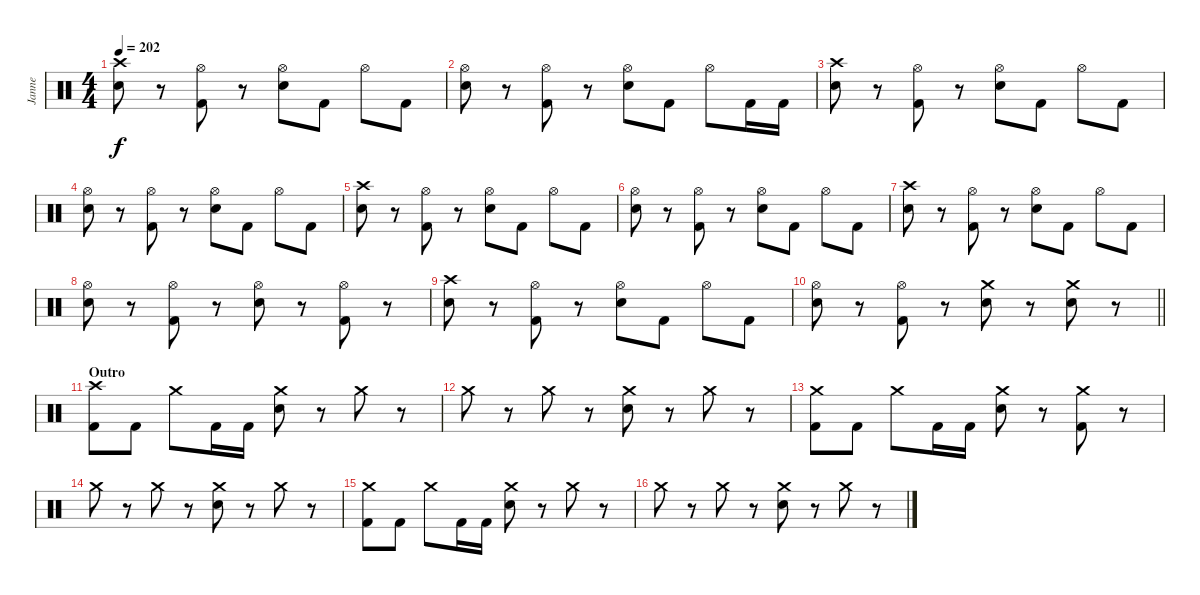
\track ("Janne" "Janne") {instrument percussion}
\staff {score}
\articulation defaults
\ts (4 4)
\tempo 202
\clef neutral
\ks c
("Crash high (hit)" "Electric Snare (hit)").8{dy f} r.8 ("Hi-Hat (open)" "Kick (hit) 2").8 r.8 ("Hi-Hat (open)" "Electric Snare (hit)").8 "Kick (hit) 2".8 "Hi-Hat (open)".8 "Kick (hit) 2".8 |
("Hi-Hat (open)" "Electric Snare (hit)").8 r.8 ("Hi-Hat (open)" "Kick (hit) 2").8 r.8 ("Hi-Hat (open)" "Electric Snare (hit)").8 "Kick (hit) 2".8 "Hi-Hat (open)".8 "Kick (hit) 2".16 "Kick (hit) 2".16 |
("Crash high (hit)" "Electric Snare (hit)").8 r.8 ("Hi-Hat (open)" "Kick (hit) 2").8 r.8 ("Hi-Hat (open)" "Electric Snare (hit)").8 "Kick (hit) 2".8 "Hi-Hat (open)".8 "Kick (hit) 2".8 |
("Hi-Hat (open)" "Electric Snare (hit)").8 r.8 ("Hi-Hat (open)" "Kick (hit) 2").8 r.8 ("Hi-Hat (open)" "Electric Snare (hit)").8 "Kick (hit) 2".8 "Hi-Hat (open)".8 "Kick (hit) 2".8 |
("Crash high (hit)" "Electric Snare (hit)").8 r.8 ("Hi-Hat (open)" "Kick (hit) 2").8 r.8 ("Hi-Hat (open)" "Electric Snare (hit)").8 "Kick (hit) 2".8 "Hi-Hat (open)".8 "Kick (hit) 2".8 |
("Hi-Hat (open)" "Electric Snare (hit)").8 r.8 ("Hi-Hat (open)" "Kick (hit) 2").8 r.8 ("Hi-Hat (open)" "Electric Snare (hit)").8 "Kick (hit) 2".8 "Hi-Hat (open)".8 "Kick (hit) 2".8 |
("Crash high (hit)" "Electric Snare (hit)").8 r.8 ("Hi-Hat (open)" "Kick (hit) 2").8 r.8 ("Hi-Hat (open)" "Electric Snare (hit)").8 "Kick (hit) 2".8 "Hi-Hat (open)".8 "Kick (hit) 2".8 |
("Hi-Hat (open)" "Electric Snare (hit)").8 r.8 ("Hi-Hat (open)" "Kick (hit) 2").8 r.8 ("Hi-Hat (open)" "Electric Snare (hit)").8 r.8 ("Hi-Hat (open)" "Kick (hit) 2").8 r.8 |
("Crash high (hit)" "Electric Snare (hit)").8 r.8 ("Hi-Hat (open)" "Kick (hit) 2").8 r.8 ("Hi-Hat (open)" "Electric Snare (hit)").8 "Kick (hit) 2".8 "Hi-Hat (open)".8 "Kick (hit) 2".8 |
\barLineRight lightlight
("Hi-Hat (open)" "Electric Snare (hit)").8 r.8 ("Hi-Hat (open)" "Kick (hit) 2").8 r.8 ("Crash medium (hit)" "Electric Snare (hit)").8 r.8 ("Crash medium (hit)" "Electric Snare (hit)").8 r.8 |
\section ("" "Outro")
("Crash high (hit)" "Kick (hit) 2").8 "Kick (hit) 2".8 "Crash medium (hit)".8 "Kick (hit) 2".16 "Kick (hit) 2".16 ("Crash medium (hit)" "Electric Snare (hit)").8 r.8 "Crash medium (hit)".8 r.8 |
"Crash medium (hit)".8 r.8 "Crash medium (hit)".8 r.8 ("Crash medium (hit)" "Electric Snare (hit)").8 r.8 "Crash medium (hit)".8 r.8 |
("Crash medium (hit)" "Kick (hit) 2").8 "Kick (hit) 2".8 "Crash medium (hit)".8 "Kick (hit) 2".16 "Kick (hit) 2".16 ("Crash medium (hit)" "Electric Snare (hit)").8 r.8 ("Crash medium (hit)" "Kick (hit) 2").8 r.8 |
"Crash medium (hit)".8 r.8 "Crash medium (hit)".8 r.8 ("Crash medium (hit)" "Electric Snare (hit)").8 r.8 "Crash medium (hit)".8 r.8 |
("Crash medium (hit)" "Kick (hit) 2").8 "Kick (hit) 2".8 "Crash medium (hit)".8 "Kick (hit) 2".16 "Kick (hit) 2".16 ("Crash medium (hit)" "Electric Snare (hit)").8 r.8 "Crash medium (hit)".8 r.8 |
"Crash medium (hit)".8 r.8 "Crash medium (hit)".8 r.8 ("Crash medium (hit)" "Electric Snare (hit)").8 r.8 "Crash medium (hit)".8 r.8
